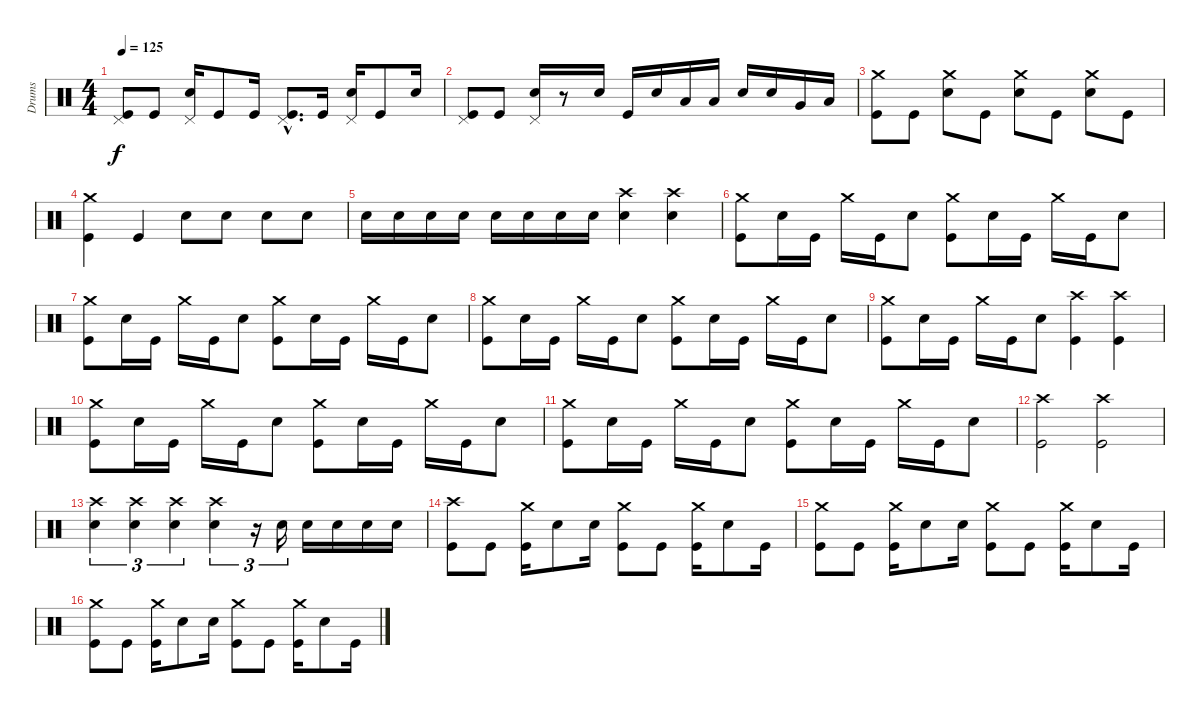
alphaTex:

\track ("Drums" "Drums") {instrument percussion}
\staff {score}
\articulation defaults
\ts (4 4)
\tempo 125
\clef neutral
\ks c
("Kick (hit)" "Pedal Hi-Hat (hit)").8{dy f} "Kick (hit)".8 ("Snare (hit) 2" "Pedal Hi-Hat (hit)").16 "Kick (hit)".8 "Kick (hit)".16 ("Kick (hit)"{hac} "Pedal Hi-Hat (hit)"{hac}).8{d} "Kick (hit)".16 ("Snare (hit) 2" "Pedal Hi-Hat (hit)").16 "Kick (hit)".8 "Snare (hit) 2".16 |
("Kick (hit)" "Pedal Hi-Hat (hit)").8 "Kick (hit)".8 ("Snare (hit) 2" "Pedal Hi-Hat (hit)").16 r.8 "Snare (hit) 2".16 "Kick (hit)".16 "Snare (hit) 2".16 "Low Tom (hit)".16 "Low Tom (hit)".16 "Snare (hit) 2".16 "Snare (hit) 2".16 "Very Low Tom (hit)".16 "Low Floor Tom (hit)".16 |
("Kick (hit)" "Crash medium (hit)").8 "Kick (hit)".8 ("Snare (hit) 2" "Crash medium (hit)").8 "Kick (hit)".8 ("Snare (hit) 2" "Crash medium (hit)").8 "Kick (hit)".8 ("Snare (hit) 2" "Crash medium (hit)").8 "Kick (hit)".8 |
("Kick (hit)" "Crash medium (hit)").4 "Kick (hit)".4 "Snare (hit) 2".8 "Snare (hit) 2".8 "Snare (hit) 2".8 "Snare (hit) 2".8 |
"Snare (hit) 2".16 "Snare (hit) 2".16 "Snare (hit) 2".16 "Snare (hit) 2".16 "Snare (hit) 2".16 "Snare (hit) 2".16 "Snare (hit) 2".16 "Snare (hit) 2".16 ("Snare (hit) 2" "Crash high (hit)").4 ("Snare (hit) 2" "Crash high (hit)").4 |
("Kick (hit)" "Crash medium (hit)").8 "Snare (hit) 2".16 "Kick (hit)".16 "Crash medium (hit)".16 "Kick (hit)".16 "Snare (hit) 2".8 ("Kick (hit)" "Crash medium (hit)").8 "Snare (hit) 2".16 "Kick (hit)".16 "Crash medium (hit)".16 "Kick (hit)".16 "Snare (hit) 2".8 |
("Kick (hit)" "Crash medium (hit)").8 "Snare (hit) 2".16 "Kick (hit)".16 "Crash medium (hit)".16 "Kick (hit)".16 "Snare (hit) 2".8 ("Kick (hit)" "Crash medium (hit)").8 "Snare (hit) 2".16 "Kick (hit)".16 "Crash medium (hit)".16 "Kick (hit)".16 "Snare (hit) 2".8 |
("Kick (hit)" "Crash medium (hit)").8 "Snare (hit) 2".16 "Kick (hit)".16 "Crash medium (hit)".16 "Kick (hit)".16 "Snare (hit) 2".8 ("Kick (hit)" "Crash medium (hit)").8 "Snare (hit) 2".16 "Kick (hit)".16 "Crash medium (hit)".16 "Kick (hit)".16 "Snare (hit) 2".8 |
("Kick (hit)" "Crash medium (hit)").8 "Snare (hit) 2".16 "Kick (hit)".16 "Crash medium (hit)".16 "Kick (hit)".16 "Snare (hit) 2".8 ("Kick (hit)" "Crash high (hit)").4 ("Kick (hit)" "Crash high (hit)").4 |
("Kick (hit)" "Crash medium (hit)").8 "Snare (hit) 2".16 "Kick (hit)".16 "Crash medium (hit)".16 "Kick (hit)".16 "Snare (hit) 2".8 ("Kick (hit)" "Crash medium (hit)").8 "Snare (hit) 2".16 "Kick (hit)".16 "Crash medium (hit)".16 "Kick (hit)".16 "Snare (hit) 2".8 |
("Kick (hit)" "Crash medium (hit)").8 "Snare (hit) 2".16 "Kick (hit)".16 "Crash medium (hit)".16 "Kick (hit)".16 "Snare (hit) 2".8 ("Kick (hit)" "Crash medium (hit)").8 "Snare (hit) 2".16 "Kick (hit)".16 "Crash medium (hit)".16 "Kick (hit)".16 "Snare (hit) 2".8 |
("Kick (hit)" "Crash high (hit)").2 ("Kick (hit)" "Crash high (hit)").2 |
("Snare (hit) 2" "Crash high (hit)").4{tu (3 2)} ("Snare (hit) 2" "Crash high (hit)").4{tu (3 2)} ("Snare (hit) 2" "Crash high (hit)").4{tu (3 2)} ("Snare (hit) 2" "Crash high (hit)").4{tu (3 2)} r.16{tu (3 2)} "Snare (hit) 2".16{tu (3 2)} "Snare (hit) 2".16 "Snare (hit) 2".16 "Snare (hit) 2".16 "Snare (hit) 2".16 |
("Kick (hit)" "Crash high (hit)").8 "Kick (hit)".8 ("Kick (hit)" "Crash medium (hit)").16 "Snare (hit) 2".8 "Snare (hit) 2".16 ("Kick (hit)" "Crash medium (hit)").8 "Kick (hit)".8 ("Kick (hit)" "Crash medium (hit)").16 "Snare (hit) 2".8 "Kick (hit)".16 |
("Kick (hit)" "Crash medium (hit)").8 "Kick (hit)".8 ("Kick (hit)" "Crash medium (hit)").16 "Snare (hit) 2".8 "Snare (hit) 2".16 ("Kick (hit)" "Crash medium (hit)").8 "Kick (hit)".8 ("Kick (hit)" "Crash medium (hit)").16 "Snare (hit) 2".8 "Kick (hit)".16 |
("Kick (hit)" "Crash medium (hit)").8 "Kick (hit)".8 ("Kick (hit)" "Crash medium (hit)").16 "Snare (hit) 2".8 "Snare (hit) 2".16 ("Kick (hit)" "Crash medium (hit)").8 "Kick (hit)".8 ("Kick (hit)" "Crash medium (hit)").16 "Snare (hit) 2".8 "Kick (hit)".16
